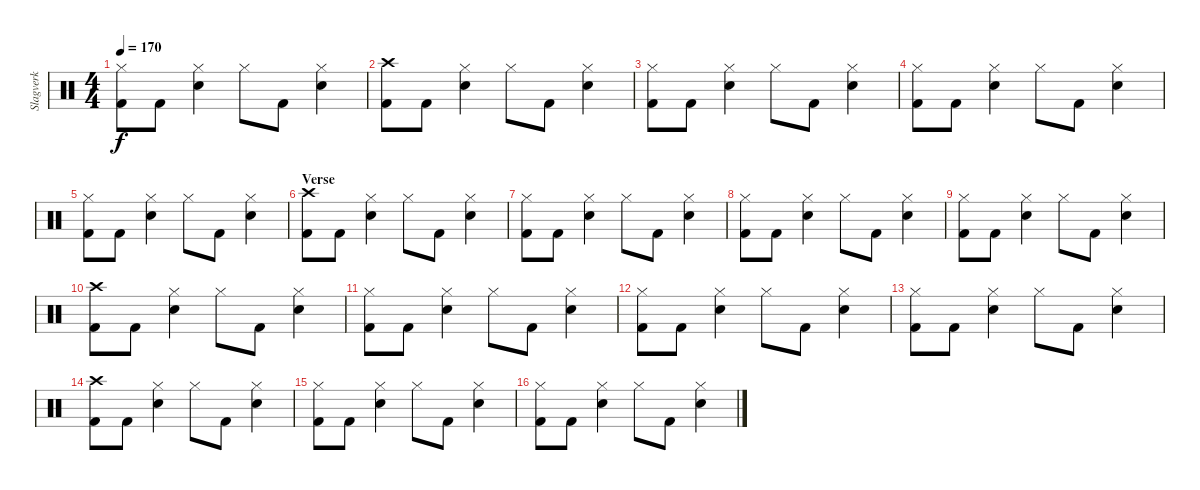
\track ("Slagverk" "Slagverk") {instrument percussion}
\staff {score}
\articulation defaults
\ts (4 4)
\tempo 170
\clef neutral
\ks c
("Kick (hit) 2" "Hi-Hat (closed)").8{dy f} "Kick (hit) 2".8 ("Hi-Hat (closed)" "Snare (hit) 2").4 "Hi-Hat (closed)".8 "Kick (hit) 2".8 ("Hi-Hat (closed)" "Snare (hit) 2").4 |
("Kick (hit) 2" "Crash high (hit)").8 "Kick (hit) 2".8 ("Hi-Hat (closed)" "Snare (hit) 2").4 "Hi-Hat (closed)".8 "Kick (hit) 2".8 ("Hi-Hat (closed)" "Snare (hit) 2").4 |
("Kick (hit) 2" "Hi-Hat (closed)").8 "Kick (hit) 2".8 ("Hi-Hat (closed)" "Snare (hit) 2").4 "Hi-Hat (closed)".8 "Kick (hit) 2".8 ("Hi-Hat (closed)" "Snare (hit) 2").4 |
("Kick (hit) 2" "Hi-Hat (closed)").8 "Kick (hit) 2".8 ("Hi-Hat (closed)" "Snare (hit) 2").4 "Hi-Hat (closed)".8 "Kick (hit) 2".8 ("Hi-Hat (closed)" "Snare (hit) 2").4 |
("Kick (hit) 2" "Hi-Hat (closed)").8 "Kick (hit) 2".8 ("Hi-Hat (closed)" "Snare (hit) 2").4 "Hi-Hat (closed)".8 "Kick (hit) 2".8 ("Hi-Hat (closed)" "Snare (hit) 2").4 |
\section ("" "Verse")
("Kick (hit) 2" "Crash high (hit)").8 "Kick (hit) 2".8 ("Hi-Hat (closed)" "Snare (hit) 2").4 "Hi-Hat (closed)".8 "Kick (hit) 2".8 ("Hi-Hat (closed)" "Snare (hit) 2").4 |
("Kick (hit) 2" "Hi-Hat (closed)").8 "Kick (hit) 2".8 ("Hi-Hat (closed)" "Snare (hit) 2").4 "Hi-Hat (closed)".8 "Kick (hit) 2".8 ("Hi-Hat (closed)" "Snare (hit) 2").4 |
("Kick (hit) 2" "Hi-Hat (closed)").8 "Kick (hit) 2".8 ("Hi-Hat (closed)" "Snare (hit) 2").4 "Hi-Hat (closed)".8 "Kick (hit) 2".8 ("Hi-Hat (closed)" "Snare (hit) 2").4 |
("Kick (hit) 2" "Hi-Hat (closed)").8 "Kick (hit) 2".8 ("Hi-Hat (closed)" "Snare (hit) 2").4 "Hi-Hat (closed)".8 "Kick (hit) 2".8 ("Hi-Hat (closed)" "Snare (hit) 2").4 |
("Kick (hit) 2" "Crash high (hit)").8 "Kick (hit) 2".8 ("Hi-Hat (closed)" "Snare (hit) 2").4 "Hi-Hat (closed)".8 "Kick (hit) 2".8 ("Hi-Hat (closed)" "Snare (hit) 2").4 |
("Kick (hit) 2" "Hi-Hat (closed)").8 "Kick (hit) 2".8 ("Hi-Hat (closed)" "Snare (hit) 2").4 "Hi-Hat (closed)".8 "Kick (hit) 2".8 ("Hi-Hat (closed)" "Snare (hit) 2").4 |
("Kick (hit) 2" "Hi-Hat (closed)").8 "Kick (hit) 2".8 ("Hi-Hat (closed)" "Snare (hit) 2").4 "Hi-Hat (closed)".8 "Kick (hit) 2".8 ("Hi-Hat (closed)" "Snare (hit) 2").4 |
("Kick (hit) 2" "Hi-Hat (closed)").8 "Kick (hit) 2".8 ("Hi-Hat (closed)" "Snare (hit) 2").4 "Hi-Hat (closed)".8 "Kick (hit) 2".8 ("Hi-Hat (closed)" "Snare (hit) 2").4 |
("Kick (hit) 2" "Crash high (hit)").8 "Kick (hit) 2".8 ("Hi-Hat (closed)" "Snare (hit) 2").4 "Hi-Hat (closed)".8 "Kick (hit) 2".8 ("Hi-Hat (closed)" "Snare (hit) 2").4 |
("Kick (hit) 2" "Hi-Hat (closed)").8 "Kick (hit) 2".8 ("Hi-Hat (closed)" "Snare (hit) 2").4 "Hi-Hat (closed)".8 "Kick (hit) 2".8 ("Hi-Hat (closed)" "Snare (hit) 2").4 |
("Kick (hit) 2" "Hi-Hat (closed)").8 "Kick (hit) 2".8 ("Hi-Hat (closed)" "Snare (hit) 2").4 "Hi-Hat (closed)".8 "Kick (hit) 2".8 ("Hi-Hat (closed)" "Snare (hit) 2").4
